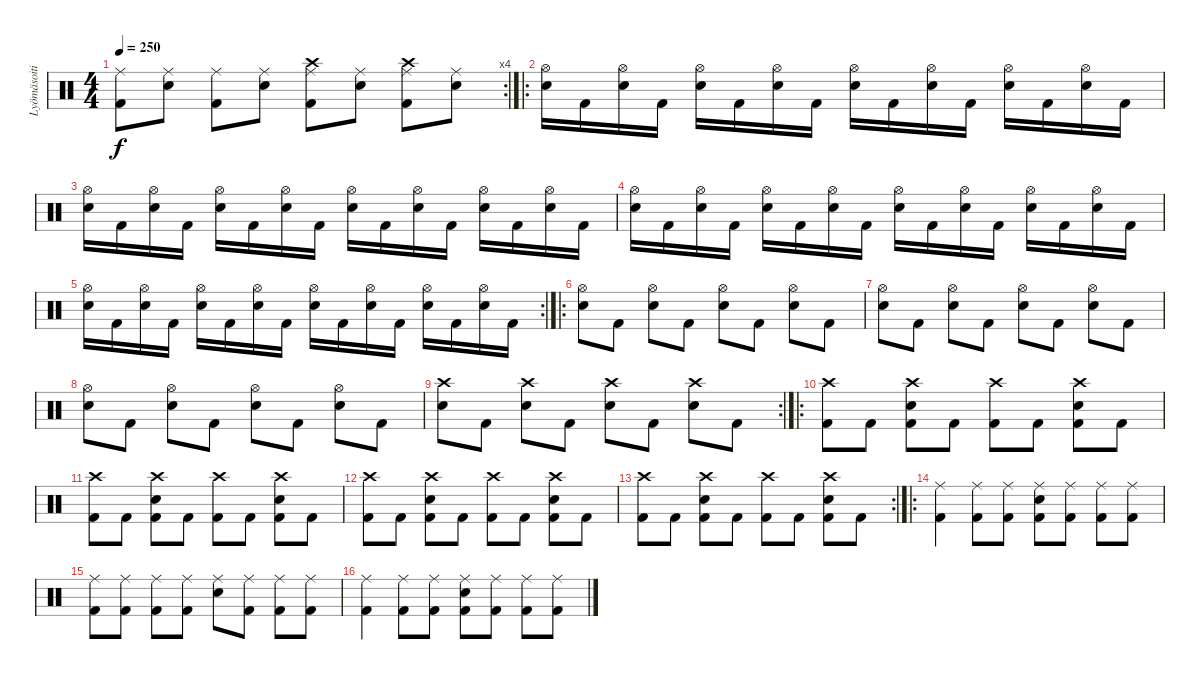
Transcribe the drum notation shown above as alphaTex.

\track ("Lyömäsoitin" "Lyömäsoiti") {instrument percussion}
\staff {score}
\articulation defaults
\rc 4
\ts (4 4)
\tempo 250
\clef neutral
\ks c
("Ride (middle)" "Kick (hit) 2").8{dy f} ("Ride (middle)" "Electric Snare (hit)").8 ("Ride (middle)" "Kick (hit) 2").8 ("Ride (middle)" "Electric Snare (hit)").8 ("Crash high (hit)" "Ride (middle)" "Kick (hit) 2").8 ("Ride (middle)" "Electric Snare (hit)").8 ("Crash high (hit)" "Ride (middle)" "Kick (hit) 2").8 ("Ride (middle)" "Electric Snare (hit)").8 |
\ro
("Hi-Hat (open)" "Electric Snare (hit)").16 "Kick (hit) 2".16 ("Hi-Hat (open)" "Electric Snare (hit)").16 "Kick (hit) 2".16 ("Hi-Hat (open)" "Electric Snare (hit)").16 "Kick (hit) 2".16 ("Hi-Hat (open)" "Electric Snare (hit)").16 "Kick (hit) 2".16 ("Hi-Hat (open)" "Electric Snare (hit)").16 "Kick (hit) 2".16 ("Hi-Hat (open)" "Electric Snare (hit)").16 "Kick (hit) 2".16 ("Hi-Hat (open)" "Electric Snare (hit)").16 "Kick (hit) 2".16 ("Hi-Hat (open)" "Electric Snare (hit)").16 "Kick (hit) 2".16 |
("Hi-Hat (open)" "Electric Snare (hit)").16 "Kick (hit) 2".16 ("Hi-Hat (open)" "Electric Snare (hit)").16 "Kick (hit) 2".16 ("Hi-Hat (open)" "Electric Snare (hit)").16 "Kick (hit) 2".16 ("Hi-Hat (open)" "Electric Snare (hit)").16 "Kick (hit) 2".16 ("Hi-Hat (open)" "Electric Snare (hit)").16 "Kick (hit) 2".16 ("Hi-Hat (open)" "Electric Snare (hit)").16 "Kick (hit) 2".16 ("Hi-Hat (open)" "Electric Snare (hit)").16 "Kick (hit) 2".16 ("Hi-Hat (open)" "Electric Snare (hit)").16 "Kick (hit) 2".16 |
("Hi-Hat (open)" "Electric Snare (hit)").16 "Kick (hit) 2".16 ("Hi-Hat (open)" "Electric Snare (hit)").16 "Kick (hit) 2".16 ("Hi-Hat (open)" "Electric Snare (hit)").16 "Kick (hit) 2".16 ("Hi-Hat (open)" "Electric Snare (hit)").16 "Kick (hit) 2".16 ("Hi-Hat (open)" "Electric Snare (hit)").16 "Kick (hit) 2".16 ("Hi-Hat (open)" "Electric Snare (hit)").16 "Kick (hit) 2".16 ("Hi-Hat (open)" "Electric Snare (hit)").16 "Kick (hit) 2".16 ("Hi-Hat (open)" "Electric Snare (hit)").16 "Kick (hit) 2".16 |
\rc 2
("Hi-Hat (open)" "Electric Snare (hit)").16 "Kick (hit) 2".16 ("Hi-Hat (open)" "Electric Snare (hit)").16 "Kick (hit) 2".16 ("Hi-Hat (open)" "Electric Snare (hit)").16 "Kick (hit) 2".16 ("Hi-Hat (open)" "Electric Snare (hit)").16 "Kick (hit) 2".16 ("Hi-Hat (open)" "Electric Snare (hit)").16 "Kick (hit) 2".16 ("Hi-Hat (open)" "Electric Snare (hit)").16 "Kick (hit) 2".16 ("Hi-Hat (open)" "Electric Snare (hit)").16 "Kick (hit) 2".16 ("Hi-Hat (open)" "Electric Snare (hit)").16 "Kick (hit) 2".16 |
\ro
("Hi-Hat (open)" "Electric Snare (hit)").8 "Kick (hit) 2".8 ("Hi-Hat (open)" "Electric Snare (hit)").8 "Kick (hit) 2".8 ("Hi-Hat (open)" "Electric Snare (hit)").8 "Kick (hit) 2".8 ("Hi-Hat (open)" "Electric Snare (hit)").8 "Kick (hit) 2".8 |
("Hi-Hat (open)" "Electric Snare (hit)").8 "Kick (hit) 2".8 ("Hi-Hat (open)" "Electric Snare (hit)").8 "Kick (hit) 2".8 ("Hi-Hat (open)" "Electric Snare (hit)").8 "Kick (hit) 2".8 ("Hi-Hat (open)" "Electric Snare (hit)").8 "Kick (hit) 2".8 |
("Hi-Hat (open)" "Electric Snare (hit)").8 "Kick (hit) 2".8 ("Hi-Hat (open)" "Electric Snare (hit)").8 "Kick (hit) 2".8 ("Hi-Hat (open)" "Electric Snare (hit)").8 "Kick (hit) 2".8 ("Hi-Hat (open)" "Electric Snare (hit)").8 "Kick (hit) 2".8 |
\rc 2
("Crash high (hit)" "Electric Snare (hit)").8 "Kick (hit) 2".8 ("Crash high (hit)" "Electric Snare (hit)").8 "Kick (hit) 2".8 ("Crash high (hit)" "Electric Snare (hit)").8 "Kick (hit) 2".8 ("Crash high (hit)" "Electric Snare (hit)").8 "Kick (hit) 2".8 |
\ro
("Crash high (hit)" "Kick (hit) 2").8 "Kick (hit) 2".8 ("Crash high (hit)" "Electric Snare (hit)" "Kick (hit) 2").8 "Kick (hit) 2".8 ("Crash high (hit)" "Kick (hit) 2").8 "Kick (hit) 2".8 ("Crash high (hit)" "Electric Snare (hit)" "Kick (hit) 2").8 "Kick (hit) 2".8 |
("Crash high (hit)" "Kick (hit) 2").8 "Kick (hit) 2".8 ("Crash high (hit)" "Electric Snare (hit)" "Kick (hit) 2").8 "Kick (hit) 2".8 ("Crash high (hit)" "Kick (hit) 2").8 "Kick (hit) 2".8 ("Crash high (hit)" "Electric Snare (hit)" "Kick (hit) 2").8 "Kick (hit) 2".8 |
("Crash high (hit)" "Kick (hit) 2").8 "Kick (hit) 2".8 ("Crash high (hit)" "Electric Snare (hit)" "Kick (hit) 2").8 "Kick (hit) 2".8 ("Crash high (hit)" "Kick (hit) 2").8 "Kick (hit) 2".8 ("Crash high (hit)" "Electric Snare (hit)" "Kick (hit) 2").8 "Kick (hit) 2".8 |
\rc 2
("Crash high (hit)" "Kick (hit) 2").8 "Kick (hit) 2".8 ("Crash high (hit)" "Electric Snare (hit)" "Kick (hit) 2").8 "Kick (hit) 2".8 ("Crash high (hit)" "Kick (hit) 2").8 "Kick (hit) 2".8 ("Crash high (hit)" "Electric Snare (hit)" "Kick (hit) 2").8 "Kick (hit) 2".8 |
\ro
("Ride (middle)" "Kick (hit) 2").4 ("Ride (middle)" "Kick (hit) 2").8 ("Ride (middle)" "Kick (hit) 2").8 ("Ride (middle)" "Electric Snare (hit)" "Kick (hit) 2").8 ("Ride (middle)" "Kick (hit) 2").8 ("Ride (middle)" "Kick (hit) 2").8 ("Ride (middle)" "Kick (hit) 2").8 |
("Ride (middle)" "Kick (hit) 2").8 ("Ride (middle)" "Kick (hit) 2").8 ("Ride (middle)" "Kick (hit) 2").8 ("Ride (middle)" "Kick (hit) 2").8 ("Ride (middle)" "Electric Snare (hit)").8 ("Ride (middle)" "Kick (hit) 2").8 ("Ride (middle)" "Kick (hit) 2").8 ("Ride (middle)" "Kick (hit) 2").8 |
("Ride (middle)" "Kick (hit) 2").4 ("Ride (middle)" "Kick (hit) 2").8 ("Ride (middle)" "Kick (hit) 2").8 ("Ride (middle)" "Electric Snare (hit)" "Kick (hit) 2").8 ("Ride (middle)" "Kick (hit) 2").8 ("Ride (middle)" "Kick (hit) 2").8 ("Ride (middle)" "Kick (hit) 2").8
